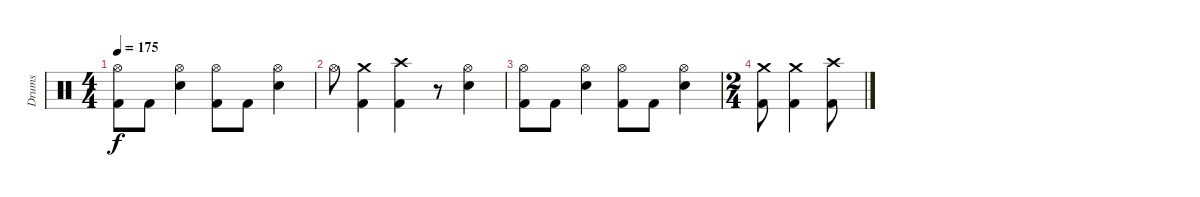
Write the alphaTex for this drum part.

\track ("Drums" "Drums") {instrument percussion}
\staff {score}
\articulation defaults
\ts (4 4)
\tempo 175
\clef neutral
\ks c
("Hi-Hat (open)" "Kick (hit) 2").8{dy f} "Kick (hit) 2".8 ("Hi-Hat (open)" "Electric Snare (hit)").4 ("Hi-Hat (open)" "Kick (hit) 2").8 "Kick (hit) 2".8 ("Hi-Hat (open)" "Electric Snare (hit)").4 |
"Hi-Hat (open)".8 ("Crash medium (hit)" "Kick (hit) 2").4 ("Crash high (hit)" "Kick (hit) 2").4 r.8 ("Hi-Hat (open)" "Electric Snare (hit)").4 |
("Hi-Hat (open)" "Kick (hit) 2").8 "Kick (hit) 2".8 ("Hi-Hat (open)" "Electric Snare (hit)").4 ("Hi-Hat (open)" "Kick (hit) 2").8 "Kick (hit) 2".8 ("Hi-Hat (open)" "Electric Snare (hit)").4 |
\ts (2 4)
("Crash medium (hit)" "Kick (hit) 2").8 ("Crash medium (hit)" "Kick (hit) 2").4 ("Crash high (hit)" "Kick (hit) 2").8
